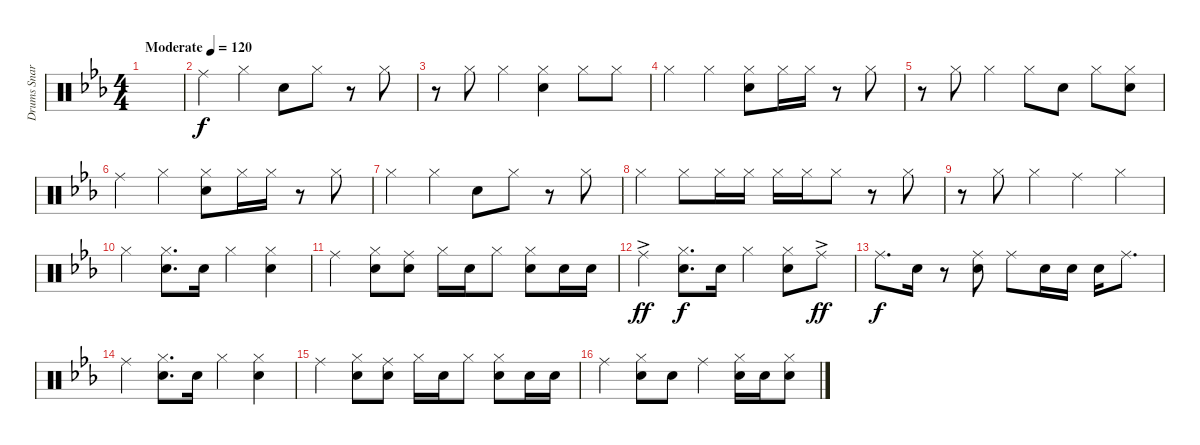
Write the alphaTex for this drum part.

\track ("Drums Snare" "Drums Snar") {instrument percussion}
\staff {score}
\articulation defaults
\ts (4 4)
\tempo (120 "Moderate")
\clef neutral
\ks eb
|
"Ride (middle)".4 "Hi-Hat (closed)".4 "Snare (hit) 2".8 "Hi-Hat (closed)".8 r.8 "Hi-Hat (closed)".8 |
r.8 "Hi-Hat (closed)".8 "Hi-Hat (closed)".4 ("Hi-Hat (closed)" "Snare (hit) 2").4 "Hi-Hat (closed)".8 "Hi-Hat (closed)".8 |
"Hi-Hat (closed)".4 "Hi-Hat (closed)".4 ("Hi-Hat (closed)" "Snare (hit) 2").8 "Hi-Hat (closed)".16 "Hi-Hat (closed)".16 r.8 "Hi-Hat (closed)".8 |
r.8 "Hi-Hat (closed)".8 "Hi-Hat (closed)".4 "Hi-Hat (closed)".8 "Snare (hit) 2".8 "Hi-Hat (closed)".8 ("Hi-Hat (closed)" "Snare (hit) 2").8 |
"Ride (middle)".4 "Hi-Hat (closed)".4 ("Hi-Hat (closed)" "Snare (hit) 2").8 "Hi-Hat (closed)".16 "Hi-Hat (closed)".16 r.8 "Hi-Hat (closed)".8 |
"Hi-Hat (closed)".4 "Hi-Hat (closed)".4 "Snare (hit) 2".8 "Hi-Hat (closed)".8 r.8 "Hi-Hat (closed)".8 |
"Hi-Hat (closed)".4 "Hi-Hat (closed)".8 "Hi-Hat (closed)".16 "Hi-Hat (closed)".16 "Hi-Hat (closed)".16 "Hi-Hat (closed)".16 "Hi-Hat (closed)".8 r.8 "Hi-Hat (closed)".8 |
r.8 "Hi-Hat (closed)".8 "Hi-Hat (closed)".4 "Ride (middle)".4 "Hi-Hat (closed)".4 |
"Hi-Hat (closed)".4 ("Hi-Hat (closed)" "Snare (hit) 2").8{d} "Snare (hit) 2".16 "Hi-Hat (closed)".4 ("Hi-Hat (closed)" "Snare (hit) 2").4 |
"Ride (middle)".4 ("Hi-Hat (closed)" "Snare (hit) 2").8 ("Ride (middle)" "Snare (hit) 2").8 "Hi-Hat (closed)".16 "Snare (hit) 2".16 "Hi-Hat (closed)".8 ("Hi-Hat (closed)" "Snare (hit) 2").8 "Snare (hit) 2".16 "Snare (hit) 2".16 |
"Ride (middle)"{ac}.4{dy ff} ("Hi-Hat (closed)" "Snare (hit) 2").8{d dy f} "Snare (hit) 2".16 "Hi-Hat (closed)".4 ("Hi-Hat (closed)" "Snare (hit) 2").8 "Ride (middle)"{ac}.8{dy ff} |
"Ride (middle)".8{d dy f} "Snare (hit) 2".16 r.8 ("Ride (middle)" "Snare (hit) 2").8 "Ride (middle)".8 "Snare (hit) 2".16 "Snare (hit) 2".16 "Snare (hit) 2".16 "Ride (middle)".8{d} |
"Ride (middle)".4 ("Hi-Hat (closed)" "Snare (hit) 2").8{d} "Snare (hit) 2".16 "Hi-Hat (closed)".4 ("Hi-Hat (closed)" "Snare (hit) 2").4 |
"Ride (middle)".4 ("Hi-Hat (closed)" "Snare (hit) 2").8 ("Ride (middle)" "Snare (hit) 2").8 "Hi-Hat (closed)".16 "Snare (hit) 2".16 "Hi-Hat (closed)".8 ("Hi-Hat (closed)" "Snare (hit) 2").8 "Snare (hit) 2".16 "Snare (hit) 2".16 |
"Ride (middle)".4 ("Hi-Hat (closed)" "Snare (hit) 2").8 "Snare (hit) 2".8 "Ride (middle)".4 ("Hi-Hat (closed)" "Snare (hit) 2").16 "Snare (hit) 2".16 ("Hi-Hat (closed)" "Snare (hit) 2").8
